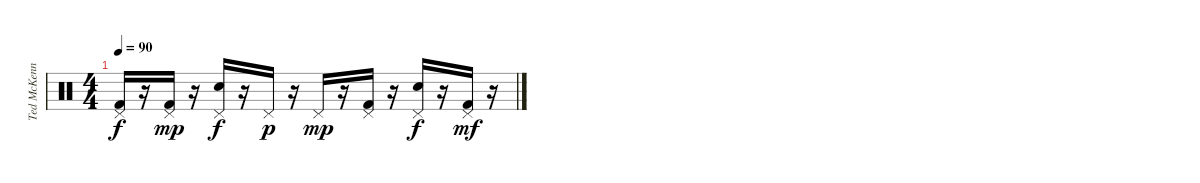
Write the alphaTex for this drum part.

\track ("Ted McKenna" "Ted McKenn") {instrument percussion}
\staff {score}
\articulation defaults
\ts (4 4)
\tempo 90
\clef neutral
\ks c
("Pedal Hi-Hat (hit)" "Kick (hit) 2").16{dy f} r.16 ("Pedal Hi-Hat (hit)" "Kick (hit) 2").16{dy mp} r.16 ("Pedal Hi-Hat (hit)" "Snare (hit) 2").16{dy f} r.16 "Pedal Hi-Hat (hit)".16{dy p} r.16 "Pedal Hi-Hat (hit)".16{dy mp} r.16 ("Pedal Hi-Hat (hit)" "Kick (hit) 2").16 r.16 ("Pedal Hi-Hat (hit)" "Snare (hit) 2").16{dy f} r.16 ("Pedal Hi-Hat (hit)" "Kick (hit) 2").16{dy mf} r.16
